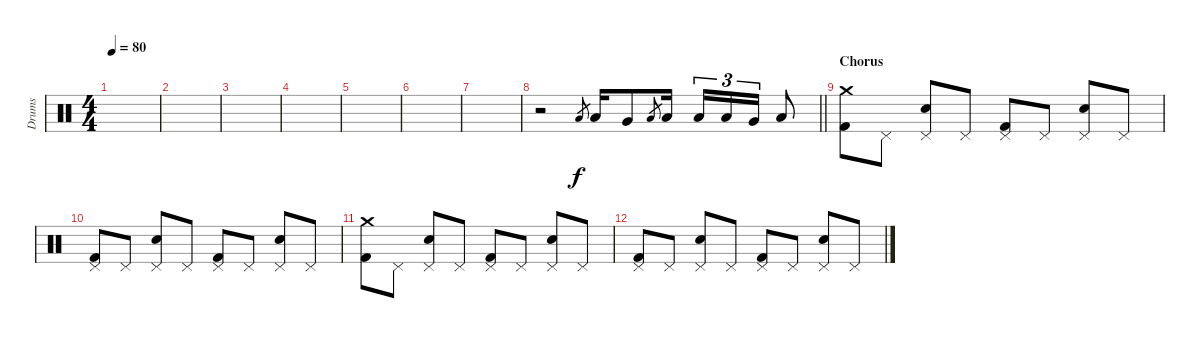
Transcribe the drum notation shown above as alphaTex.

\track ("Drums" "Drums") {instrument percussion}
\staff {score}
\articulation defaults
\ts (4 4)
\tempo 80
\clef neutral
\ks c
|
|
|
|
|
|
|
\barLineRight lightlight
r.2 "Low Tom (hit)".8{gr} "Low Tom (hit)".16 "Very Low Tom (hit)".8 "Low Tom (hit)".8{gr} "Low Tom (hit)".16 "Low Tom (hit)".16{tu (3 2)} "Low Tom (hit)".16{tu (3 2)} "Very Low Tom (hit)".16{tu (3 2)} "Low Floor Tom (hit)".8 |
\section ("" "Chorus")
("Crash medium (hit)" "Kick (hit) 2").8 "Pedal Hi-Hat (hit)".8 ("Pedal Hi-Hat (hit)" "Snare (hit) 2").8 "Pedal Hi-Hat (hit)".8 ("Pedal Hi-Hat (hit)" "Kick (hit) 2").8 "Pedal Hi-Hat (hit)".8 ("Pedal Hi-Hat (hit)" "Snare (hit) 2").8 "Pedal Hi-Hat (hit)".8 |
("Pedal Hi-Hat (hit)" "Kick (hit) 2").8 "Pedal Hi-Hat (hit)".8 ("Pedal Hi-Hat (hit)" "Snare (hit) 2").8 "Pedal Hi-Hat (hit)".8 ("Pedal Hi-Hat (hit)" "Kick (hit) 2").8 "Pedal Hi-Hat (hit)".8 ("Pedal Hi-Hat (hit)" "Snare (hit) 2").8 "Pedal Hi-Hat (hit)".8 |
("Crash medium (hit)" "Kick (hit) 2").8 "Pedal Hi-Hat (hit)".8 ("Pedal Hi-Hat (hit)" "Snare (hit) 2").8 "Pedal Hi-Hat (hit)".8 ("Pedal Hi-Hat (hit)" "Kick (hit) 2").8 "Pedal Hi-Hat (hit)".8 ("Pedal Hi-Hat (hit)" "Snare (hit) 2").8 "Pedal Hi-Hat (hit)".8 |
("Pedal Hi-Hat (hit)" "Kick (hit) 2").8 "Pedal Hi-Hat (hit)".8 ("Pedal Hi-Hat (hit)" "Snare (hit) 2").8 "Pedal Hi-Hat (hit)".8 ("Pedal Hi-Hat (hit)" "Kick (hit) 2").8 "Pedal Hi-Hat (hit)".8 ("Pedal Hi-Hat (hit)" "Snare (hit) 2").8 "Pedal Hi-Hat (hit)".8
